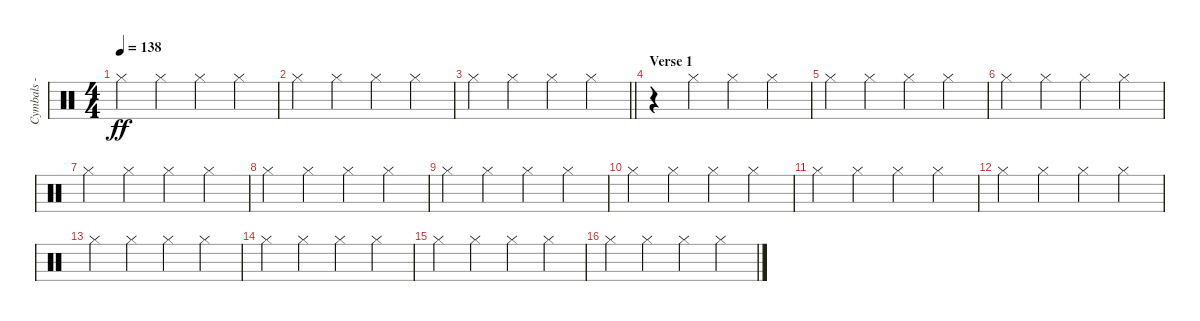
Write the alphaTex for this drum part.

\track ("Cymbals - hi-hat" "Cymbals - ") {instrument percussion}
\staff {score}
\articulation defaults
\ts (4 4)
\tempo 138
\clef neutral
\ks c "Hi-Hat (closed)".4{dy ff} "Hi-Hat (closed)".4 "Hi-Hat (closed)".4 "Hi-Hat (closed)".4
|
"Hi-Hat (closed)".4 "Hi-Hat (closed)".4 "Hi-Hat (closed)".4 "Hi-Hat (closed)".4 |
\barLineRight lightlight "Hi-Hat (closed)".4 "Hi-Hat (closed)".4 "Hi-Hat (closed)".4 "Hi-Hat (closed)".4
|
\section ("" "Verse 1")
r.4 "Hi-Hat (closed)".4 "Hi-Hat (closed)".4 "Hi-Hat (closed)".4 |
"Hi-Hat (closed)".4 "Hi-Hat (closed)".4 "Hi-Hat (closed)".4 "Hi-Hat (closed)".4 |
"Hi-Hat (closed)".4 "Hi-Hat (closed)".4 "Hi-Hat (closed)".4 "Hi-Hat (closed)".4 |
"Hi-Hat (closed)".4 "Hi-Hat (closed)".4 "Hi-Hat (closed)".4 "Hi-Hat (closed)".4 |
"Hi-Hat (closed)".4 "Hi-Hat (closed)".4 "Hi-Hat (closed)".4 "Hi-Hat (closed)".4 |
"Hi-Hat (closed)".4 "Hi-Hat (closed)".4 "Hi-Hat (closed)".4 "Hi-Hat (closed)".4 |
"Hi-Hat (closed)".4 "Hi-Hat (closed)".4 "Hi-Hat (closed)".4 "Hi-Hat (closed)".4 |
"Hi-Hat (closed)".4 "Hi-Hat (closed)".4 "Hi-Hat (closed)".4 "Hi-Hat (closed)".4 |
"Hi-Hat (closed)".4 "Hi-Hat (closed)".4 "Hi-Hat (closed)".4 "Hi-Hat (closed)".4 |
"Hi-Hat (closed)".4 "Hi-Hat (closed)".4 "Hi-Hat (closed)".4 "Hi-Hat (closed)".4 |
"Hi-Hat (closed)".4 "Hi-Hat (closed)".4 "Hi-Hat (closed)".4 "Hi-Hat (closed)".4 |
"Hi-Hat (closed)".4 "Hi-Hat (closed)".4 "Hi-Hat (closed)".4 "Hi-Hat (closed)".4 |
"Hi-Hat (closed)".4 "Hi-Hat (closed)".4 "Hi-Hat (closed)".4 "Hi-Hat (closed)".4
